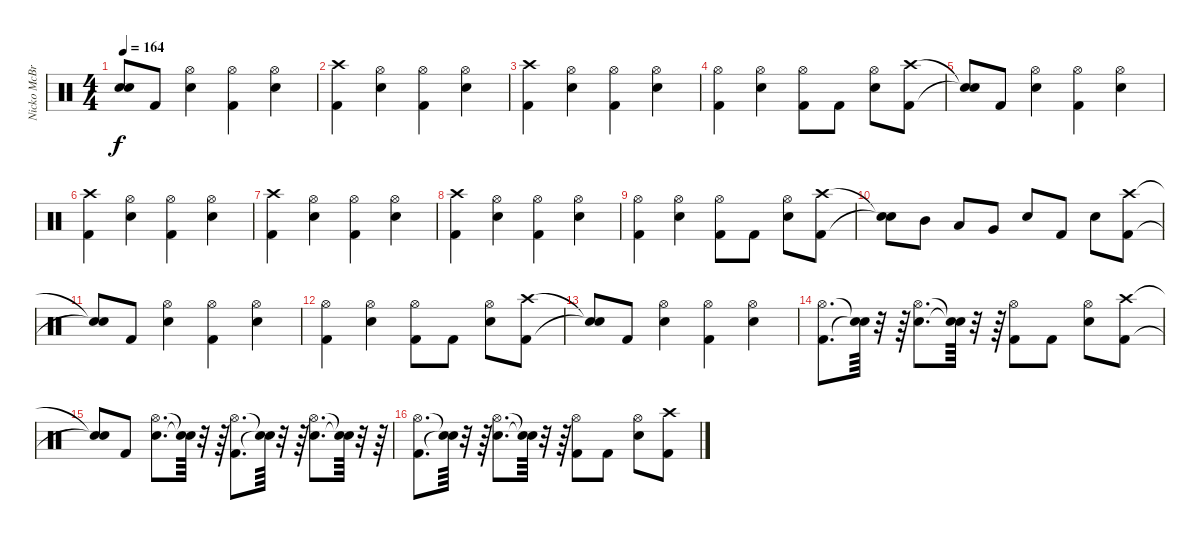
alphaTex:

\track ("Nicko McBrian (Drums)" "Nicko McBr") {instrument percussion}
\staff {score}
\articulation defaults
\ts (4 4)
\tempo 164
\clef neutral
\ks c
("Snare (hit)"{t} "Snare (hit)"{t}).8{dy f} "Kick (hit) 2".8 ("Snare (hit) 2" "Hi-Hat (open)").4 ("Kick (hit) 2" "Hi-Hat (open)").4 ("Snare (hit) 2" "Hi-Hat (open)").4 |
("Kick (hit) 2" "Crash high (hit)").4 ("Snare (hit) 2" "Hi-Hat (open)").4 ("Kick (hit) 2" "Hi-Hat (open)").4 ("Snare (hit) 2" "Hi-Hat (open)").4 |
("Kick (hit) 2" "Crash high (hit)").4 ("Snare (hit) 2" "Hi-Hat (open)").4 ("Kick (hit) 2" "Hi-Hat (open)").4 ("Snare (hit) 2" "Hi-Hat (open)").4 |
("Kick (hit) 2" "Hi-Hat (open)").4 ("Snare (hit) 2" "Hi-Hat (open)").4 ("Kick (hit) 2" "Hi-Hat (open)").8 "Kick (hit) 2".8 ("Snare (hit) 2" "Hi-Hat (open)").8 ("Kick (hit) 2" "Crash high (hit)").8 |
("Snare (hit)"{t} "Snare (hit)"{t}).8 "Kick (hit) 2".8 ("Snare (hit) 2" "Hi-Hat (open)").4 ("Kick (hit) 2" "Hi-Hat (open)").4 ("Snare (hit) 2" "Hi-Hat (open)").4 |
("Kick (hit) 2" "Crash high (hit)").4 ("Snare (hit) 2" "Hi-Hat (open)").4 ("Kick (hit) 2" "Hi-Hat (open)").4 ("Snare (hit) 2" "Hi-Hat (open)").4 |
("Kick (hit) 2" "Crash high (hit)").4 ("Snare (hit) 2" "Hi-Hat (open)").4 ("Kick (hit) 2" "Hi-Hat (open)").4 ("Snare (hit) 2" "Hi-Hat (open)").4 |
("Kick (hit) 2" "Crash high (hit)").4 ("Snare (hit) 2" "Hi-Hat (open)").4 ("Kick (hit) 2" "Hi-Hat (open)").4 ("Snare (hit) 2" "Hi-Hat (open)").4 |
("Kick (hit) 2" "Hi-Hat (open)").4 ("Snare (hit) 2" "Hi-Hat (open)").4 ("Kick (hit) 2" "Hi-Hat (open)").8 "Kick (hit) 2".8 ("Snare (hit) 2" "Hi-Hat (open)").8 ("Kick (hit) 2" "Crash high (hit)").8 |
("Snare (hit)"{t} "Snare (hit)"{t}).8 "Mid Tom (hit)".8 "Low Tom (hit)".8 "Very Low Tom (hit)".8 "Snare (hit) 2".8 "Kick (hit) 2".8 "Snare (hit) 2".8 ("Kick (hit) 2" "Crash high (hit)").8 |
("Snare (hit)"{t} "Snare (hit)"{t}).8 "Kick (hit) 2".8 ("Snare (hit) 2" "Hi-Hat (open)").4 ("Kick (hit) 2" "Hi-Hat (open)").4 ("Snare (hit) 2" "Hi-Hat (open)").4 |
("Kick (hit) 2" "Hi-Hat (open)").4 ("Snare (hit) 2" "Hi-Hat (open)").4 ("Kick (hit) 2" "Hi-Hat (open)").8 "Kick (hit) 2".8 ("Snare (hit) 2" "Hi-Hat (open)").8 ("Kick (hit) 2" "Crash high (hit)").8 |
("Snare (hit)"{t} "Snare (hit)"{t}).8 "Kick (hit) 2".8 ("Snare (hit) 2" "Hi-Hat (open)").4 ("Kick (hit) 2" "Hi-Hat (open)").4 ("Snare (hit) 2" "Hi-Hat (open)").4 |
("Kick (hit) 2" "Hi-Hat (open)").8{d} ("Snare (hit)"{t} "Snare (hit)"{t}).64 r.32 r.64 ("Snare (hit) 2" "Hi-Hat (open)").8{d} ("Snare (hit)"{t} "Snare (hit)"{t}).64 r.32 r.64 ("Kick (hit) 2" "Hi-Hat (open)").8 "Kick (hit) 2".8 ("Snare (hit) 2" "Hi-Hat (open)").8 ("Kick (hit) 2" "Crash high (hit)").8 |
("Snare (hit)"{t} "Snare (hit)"{t}).8 "Kick (hit) 2".8 ("Snare (hit) 2" "Hi-Hat (open)").8{d} ("Snare (hit)"{t} "Snare (hit)"{t}).64 r.32 r.64 ("Kick (hit) 2" "Hi-Hat (open)").8{d} ("Snare (hit)"{t} "Snare (hit)"{t}).64 r.32 r.64 ("Snare (hit) 2" "Hi-Hat (open)").8{d} ("Snare (hit)"{t} "Snare (hit)"{t}).64 r.32 r.64 |
("Kick (hit) 2" "Hi-Hat (open)").8{d} ("Snare (hit)"{t} "Snare (hit)"{t}).64 r.32 r.64 ("Snare (hit) 2" "Hi-Hat (open)").8{d} ("Snare (hit)"{t} "Snare (hit)"{t}).64 r.32 r.64 ("Kick (hit) 2" "Hi-Hat (open)").8 "Kick (hit) 2".8 ("Snare (hit) 2" "Hi-Hat (open)").8 ("Kick (hit) 2" "Crash high (hit)").8
